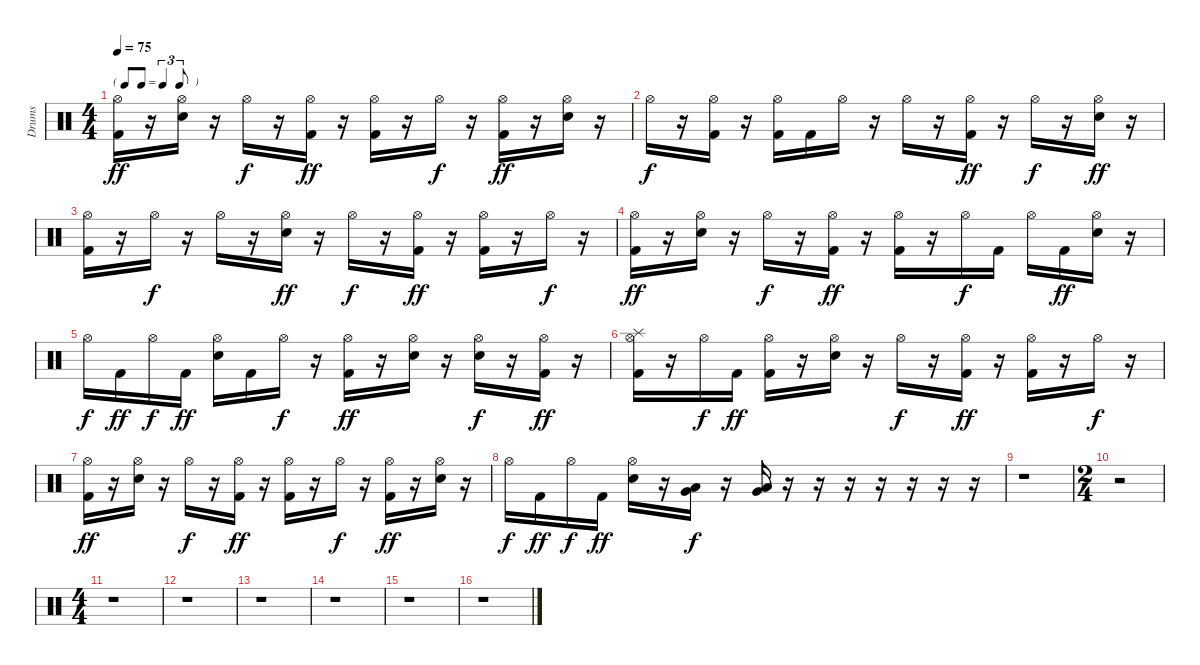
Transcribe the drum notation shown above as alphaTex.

\track ("Drums" "Drums") {instrument percussion}
\staff {score}
\articulation defaults
\ts (4 4)
\tf triplet8th
\tempo 75
\clef neutral
\ks c
("Hi-Hat (open)" "Kick (hit) 2").16{dy ff} r.16 ("Hi-Hat (open)" "Electric Snare (hit)").16 r.16 "Hi-Hat (open)".16{dy f} r.16 ("Hi-Hat (open)" "Kick (hit) 2").16{dy ff} r.16 ("Hi-Hat (open)" "Kick (hit) 2").16 r.16 "Hi-Hat (open)".16{dy f} r.16 ("Hi-Hat (open)" "Kick (hit) 2").16{dy ff} r.16 ("Hi-Hat (open)" "Electric Snare (hit)").16 r.16 |
"Hi-Hat (open)".16{dy f} r.16 ("Hi-Hat (open)" "Kick (hit) 2").16 r.16 ("Hi-Hat (open)" "Kick (hit) 2").16 "Kick (hit) 2".16 "Hi-Hat (open)".16 r.16 "Hi-Hat (open)".16 r.16 ("Hi-Hat (open)" "Kick (hit) 2").16{dy ff} r.16 "Hi-Hat (open)".16{dy f} r.16 ("Hi-Hat (open)" "Electric Snare (hit)").16{dy ff} r.16 |
("Hi-Hat (open)" "Kick (hit) 2").16 r.16 "Hi-Hat (open)".16{dy f} r.16 "Hi-Hat (open)".16 r.16 ("Hi-Hat (open)" "Electric Snare (hit)").16{dy ff} r.16 "Hi-Hat (open)".16{dy f} r.16 ("Hi-Hat (open)" "Kick (hit) 2").16{dy ff} r.16 ("Hi-Hat (open)" "Kick (hit) 2").16 r.16 "Hi-Hat (open)".16{dy f} r.16 |
("Hi-Hat (open)" "Kick (hit) 2").16{dy ff} r.16 ("Hi-Hat (open)" "Electric Snare (hit)").16 r.16 "Hi-Hat (open)".16{dy f} r.16 ("Hi-Hat (open)" "Kick (hit) 2").16{dy ff} r.16 ("Hi-Hat (open)" "Kick (hit) 2").16 r.16 "Hi-Hat (open)".16{dy f} "Kick (hit) 2".16 "Hi-Hat (open)".16 "Kick (hit) 2".16{dy ff} ("Hi-Hat (open)" "Electric Snare (hit)").16 r.16 |
"Hi-Hat (open)".16{dy f} "Kick (hit) 2".16{dy ff} "Hi-Hat (open)".16{dy f} "Kick (hit) 2".16{dy ff} ("Hi-Hat (open)" "Electric Snare (hit)").16 "Kick (hit) 2".16 "Hi-Hat (open)".16{dy f} r.16 ("Hi-Hat (open)" "Kick (hit) 2").16{dy ff} r.16 ("Hi-Hat (open)" "Electric Snare (hit)").16 r.16 ("Hi-Hat (open)" "Electric Snare (hit)").16{dy f} r.16 ("Hi-Hat (open)" "Kick (hit) 2").16{dy ff} r.16 |
("Hi-Hat (open)" "Splash (hit)" "Kick (hit) 2").16 r.16 "Hi-Hat (open)".16{dy f} "Kick (hit) 2".16{dy ff} ("Hi-Hat (open)" "Kick (hit) 2").16 r.16 ("Hi-Hat (open)" "Electric Snare (hit)").16 r.16 "Hi-Hat (open)".16{dy f} r.16 ("Hi-Hat (open)" "Kick (hit) 2").16{dy ff} r.16 ("Hi-Hat (open)" "Kick (hit) 2").16 r.16 "Hi-Hat (open)".16{dy f} r.16 |
("Hi-Hat (open)" "Kick (hit) 2").16{dy ff} r.16 ("Hi-Hat (open)" "Electric Snare (hit)").16 r.16 "Hi-Hat (open)".16{dy f} r.16 ("Hi-Hat (open)" "Kick (hit) 2").16{dy ff} r.16 ("Hi-Hat (open)" "Kick (hit) 2").16 r.16 "Hi-Hat (open)".16{dy f} r.16 ("Hi-Hat (open)" "Kick (hit) 2").16{dy ff} r.16 ("Hi-Hat (open)" "Electric Snare (hit)").16 r.16 |
"Hi-Hat (open)".16{dy f} "Kick (hit) 2".16{dy ff} "Hi-Hat (open)".16{dy f} "Kick (hit) 2".16{dy ff} ("Hi-Hat (open)" "Electric Snare (hit)").16 r.16 ("Low Tom (hit)" "Very Low Tom (hit)").16{dy f} r.16 ("Low Tom (hit)" "Very Low Tom (hit)").16 r.16 r.16 r.16 r.16 r.16 r.16 r.16 |
r.1 |
\ts (2 4)
r.2 |
\ts (4 4)
r.1 |
r.1 |
r.1 |
r.1 |
r.1 |
r.1
